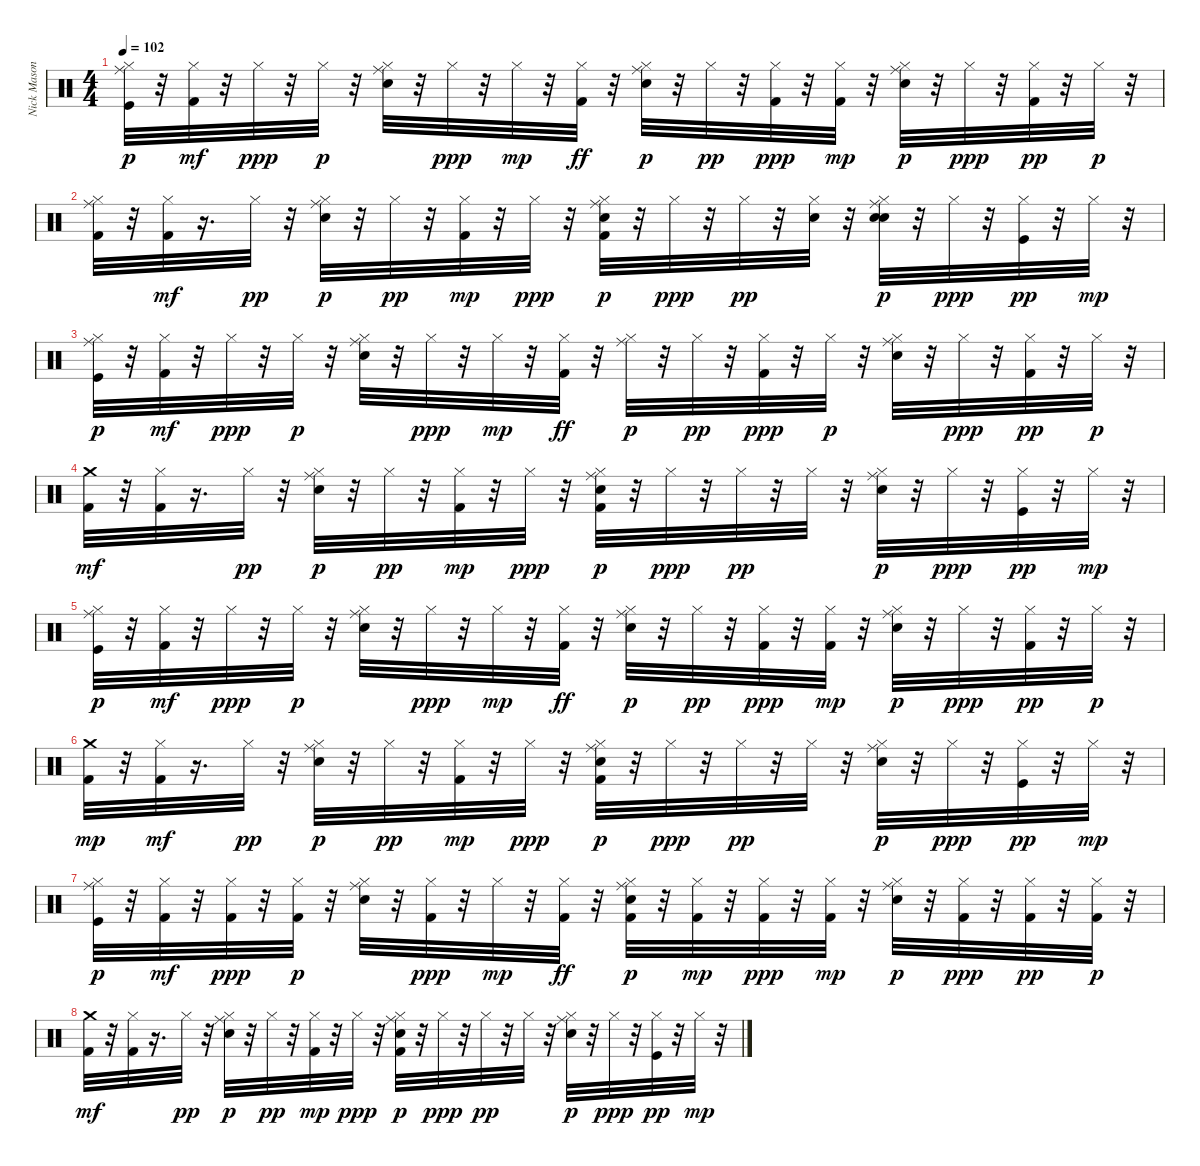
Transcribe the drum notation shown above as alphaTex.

\track ("Nick Mason / Gary Wallis" "Nick Mason") {instrument percussion}
\staff {score}
\articulation defaults
\ts (4 4)
\tempo 102
\clef neutral
\ks c
("Kick (hit)" "Hi-Hat (closed)" "Ride (middle)").32{dy p} r.32 ("Hi-Hat (closed)" "Kick (hit) 2").32{dy mf} r.32 "Hi-Hat (closed)".32{dy ppp} r.32 "Hi-Hat (closed)".32{dy p} r.32 ("Snare (hit) 2" "Hi-Hat (closed)" "Ride (middle)").32 r.32 "Hi-Hat (closed)".32{dy ppp} r.32 "Hi-Hat (closed)".32{dy mp} r.32 ("Hi-Hat (closed)" "Kick (hit) 2").32{dy ff} r.32 ("Electric Snare (hit)" "Hi-Hat (closed)" "Ride (middle)").32{dy p} r.32 "Hi-Hat (closed)".32{dy pp} r.32 ("Hi-Hat (closed)" "Kick (hit) 2").32{dy ppp} r.32 ("Hi-Hat (closed)" "Kick (hit) 2").32{dy mp} r.32 ("Snare (hit) 2" "Hi-Hat (closed)" "Ride (middle)").32{dy p} r.32 "Hi-Hat (closed)".32{dy ppp} r.32 ("Kick (hit) 2" "Hi-Hat (closed)").32{dy pp} r.32 "Hi-Hat (closed)".32{dy p} r.32 |
("Kick (hit) 2" "Hi-Hat (closed)" "Ride (middle)").32 r.32 ("Hi-Hat (closed)" "Kick (hit) 2").32{dy mf} r.16{d} "Hi-Hat (closed)".32{dy pp} r.32 ("Snare (hit) 2" "Hi-Hat (closed)" "Ride (middle)").32{dy p} r.32 "Hi-Hat (closed)".32{dy pp} r.32 ("Kick (hit) 2" "Hi-Hat (closed)").32{dy mp} r.32 "Hi-Hat (closed)".32{dy ppp} r.32 ("Kick (hit) 2" "Electric Snare (hit)" "Hi-Hat (closed)" "Ride (middle)").32{dy p} r.32 "Hi-Hat (closed)".32{dy ppp} r.32 "Hi-Hat (closed)".32{dy pp} r.32 ("Electric Snare (hit)" "Hi-Hat (closed)").32 r.32 ("Snare (hit) 2" "Electric Snare (hit)" "Hi-Hat (closed)" "Ride (middle)").32{dy p} r.32 "Hi-Hat (closed)".32{dy ppp} r.32 ("Kick (hit)" "Hi-Hat (closed)").32{dy pp} r.32 "Hi-Hat (closed)".32{dy mp} r.32 |
("Kick (hit)" "Hi-Hat (closed)" "Ride (middle)").32{dy p} r.32 ("Hi-Hat (closed)" "Kick (hit) 2").32{dy mf} r.32 "Hi-Hat (closed)".32{dy ppp} r.32 "Hi-Hat (closed)".32{dy p} r.32 ("Snare (hit) 2" "Hi-Hat (closed)" "Ride (middle)").32 r.32 "Hi-Hat (closed)".32{dy ppp} r.32 "Hi-Hat (closed)".32{dy mp} r.32 ("Hi-Hat (closed)" "Kick (hit) 2").32{dy ff} r.32 ("Hi-Hat (closed)" "Ride (middle)").32{dy p} r.32 "Hi-Hat (closed)".32{dy pp} r.32 ("Hi-Hat (closed)" "Kick (hit) 2").32{dy ppp} r.32 "Hi-Hat (closed)".32{dy p} r.32 ("Snare (hit) 2" "Hi-Hat (closed)" "Ride (middle)").32 r.32 "Hi-Hat (closed)".32{dy ppp} r.32 ("Kick (hit) 2" "Hi-Hat (closed)").32{dy pp} r.32 "Hi-Hat (closed)".32{dy p} r.32 |
("Kick (hit) 2" "Crash medium (hit)").32{dy mf} r.32 ("Hi-Hat (closed)" "Kick (hit) 2").32 r.16{d} "Hi-Hat (closed)".32{dy pp} r.32 ("Snare (hit) 2" "Hi-Hat (closed)" "Ride (middle)").32{dy p} r.32 "Hi-Hat (closed)".32{dy pp} r.32 ("Kick (hit) 2" "Hi-Hat (closed)").32{dy mp} r.32 "Hi-Hat (closed)".32{dy ppp} r.32 ("Kick (hit) 2" "Electric Snare (hit)" "Hi-Hat (closed)" "Ride (middle)").32{dy p} r.32 "Hi-Hat (closed)".32{dy ppp} r.32 "Hi-Hat (closed)".32{dy pp} r.32 "Hi-Hat (closed)".32 r.32 ("Snare (hit) 2" "Hi-Hat (closed)" "Ride (middle)").32{dy p} r.32 "Hi-Hat (closed)".32{dy ppp} r.32 ("Kick (hit)" "Hi-Hat (closed)").32{dy pp} r.32 "Hi-Hat (closed)".32{dy mp} r.32 |
("Kick (hit)" "Hi-Hat (closed)" "Ride (middle)").32{dy p} r.32 ("Hi-Hat (closed)" "Kick (hit) 2").32{dy mf} r.32 "Hi-Hat (closed)".32{dy ppp} r.32 "Hi-Hat (closed)".32{dy p} r.32 ("Snare (hit) 2" "Hi-Hat (closed)" "Ride (middle)").32 r.32 "Hi-Hat (closed)".32{dy ppp} r.32 "Hi-Hat (closed)".32{dy mp} r.32 ("Hi-Hat (closed)" "Kick (hit) 2").32{dy ff} r.32 ("Electric Snare (hit)" "Hi-Hat (closed)" "Ride (middle)").32{dy p} r.32 "Hi-Hat (closed)".32{dy pp} r.32 ("Hi-Hat (closed)" "Kick (hit) 2").32{dy ppp} r.32 ("Hi-Hat (closed)" "Kick (hit) 2").32{dy mp} r.32 ("Snare (hit) 2" "Hi-Hat (closed)" "Ride (middle)").32{dy p} r.32 "Hi-Hat (closed)".32{dy ppp} r.32 ("Kick (hit) 2" "Hi-Hat (closed)").32{dy pp} r.32 "Hi-Hat (closed)".32{dy p} r.32 |
("Kick (hit) 2" "Crash medium (hit)").32{dy mp} r.32 ("Hi-Hat (closed)" "Kick (hit) 2").32{dy mf} r.16{d} "Hi-Hat (closed)".32{dy pp} r.32 ("Snare (hit) 2" "Hi-Hat (closed)" "Ride (middle)").32{dy p} r.32 "Hi-Hat (closed)".32{dy pp} r.32 ("Kick (hit) 2" "Hi-Hat (closed)").32{dy mp} r.32 "Hi-Hat (closed)".32{dy ppp} r.32 ("Kick (hit) 2" "Electric Snare (hit)" "Hi-Hat (closed)" "Ride (middle)").32{dy p} r.32 "Hi-Hat (closed)".32{dy ppp} r.32 "Hi-Hat (closed)".32{dy pp} r.32 "Hi-Hat (closed)".32 r.32 ("Snare (hit) 2" "Hi-Hat (closed)" "Ride (middle)").32{dy p} r.32 "Hi-Hat (closed)".32{dy ppp} r.32 ("Kick (hit)" "Hi-Hat (closed)").32{dy pp} r.32 "Hi-Hat (closed)".32{dy mp} r.32 |
("Kick (hit)" "Hi-Hat (closed)" "Ride (middle)").32{dy p} r.32 ("Hi-Hat (closed)" "Kick (hit) 2").32{dy mf} r.32 ("Kick (hit) 2" "Hi-Hat (closed)").32{dy ppp} r.32 ("Kick (hit) 2" "Hi-Hat (closed)").32{dy p} r.32 ("Snare (hit) 2" "Hi-Hat (closed)" "Ride (middle)").32 r.32 ("Kick (hit) 2" "Hi-Hat (closed)").32{dy ppp} r.32 "Hi-Hat (closed)".32{dy mp} r.32 ("Hi-Hat (closed)" "Kick (hit) 2").32{dy ff} r.32 ("Kick (hit) 2" "Electric Snare (hit)" "Hi-Hat (closed)" "Ride (middle)").32{dy p} r.32 ("Hi-Hat (closed)" "Kick (hit) 2").32{dy mp} r.32 ("Hi-Hat (closed)" "Kick (hit) 2").32{dy ppp} r.32 ("Hi-Hat (closed)" "Kick (hit) 2").32{dy mp} r.32 ("Snare (hit) 2" "Hi-Hat (closed)" "Ride (middle)").32{dy p} r.32 ("Kick (hit) 2" "Hi-Hat (closed)").32{dy ppp} r.32 ("Kick (hit) 2" "Hi-Hat (closed)").32{dy pp} r.32 ("Kick (hit) 2" "Hi-Hat (closed)").32{dy p} r.32 |
("Kick (hit) 2" "Crash medium (hit)").32{dy mf} r.32 ("Hi-Hat (closed)" "Kick (hit) 2").32 r.16{d} "Hi-Hat (closed)".32{dy pp} r.32 ("Snare (hit) 2" "Hi-Hat (closed)" "Ride (middle)").32{dy p} r.32 "Hi-Hat (closed)".32{dy pp} r.32 ("Kick (hit) 2" "Hi-Hat (closed)").32{dy mp} r.32 "Hi-Hat (closed)".32{dy ppp} r.32 ("Kick (hit) 2" "Electric Snare (hit)" "Hi-Hat (closed)" "Ride (middle)").32{dy p} r.32 "Hi-Hat (closed)".32{dy ppp} r.32 "Hi-Hat (closed)".32{dy pp} r.32 "Hi-Hat (closed)".32 r.32 ("Snare (hit) 2" "Hi-Hat (closed)" "Ride (middle)").32{dy p} r.32 "Hi-Hat (closed)".32{dy ppp} r.32 ("Kick (hit)" "Hi-Hat (closed)").32{dy pp} r.32 "Hi-Hat (closed)".32{dy mp} r.32
